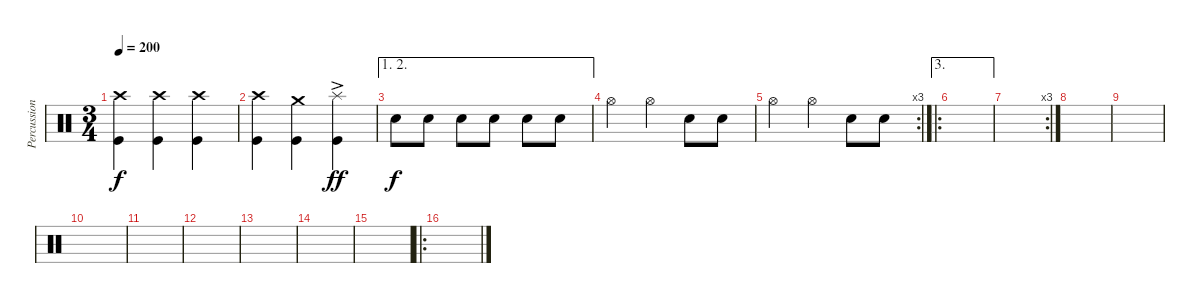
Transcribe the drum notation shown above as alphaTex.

\track ("Percussion" "Percussion") {instrument percussion}
\staff {score}
\articulation defaults
\ts (3 4)
\tempo 200
\clef neutral
\ks c
("Crash high (hit)" "Kick (hit)").4{dy f} ("Crash high (hit)" "Kick (hit)").4 ("Crash high (hit)" "Kick (hit)").4 |
("Crash high (hit)" "Kick (hit)").4 ("Crash medium (hit)" "Kick (hit)").4 ("Splash (hit)"{ac} "Kick (hit)").4{dy ff} |
\ae (1 2)
"Snare (hit) 2".8{dy f} "Snare (hit) 2".8 "Snare (hit) 2".8 "Snare (hit) 2".8 "Snare (hit) 2".8 "Snare (hit) 2".8 |
"Hi-Hat (open)".4 "Hi-Hat (open)".4 "Snare (hit) 2".8 "Snare (hit) 2".8 |
\rc 3 "Hi-Hat (open)".4 "Hi-Hat (open)".4 "Snare (hit) 2".8 "Snare (hit) 2".8
|
\ae 3
\ro
|
\rc 3
|
|
|
|
|
|
|
|
|
\ro
